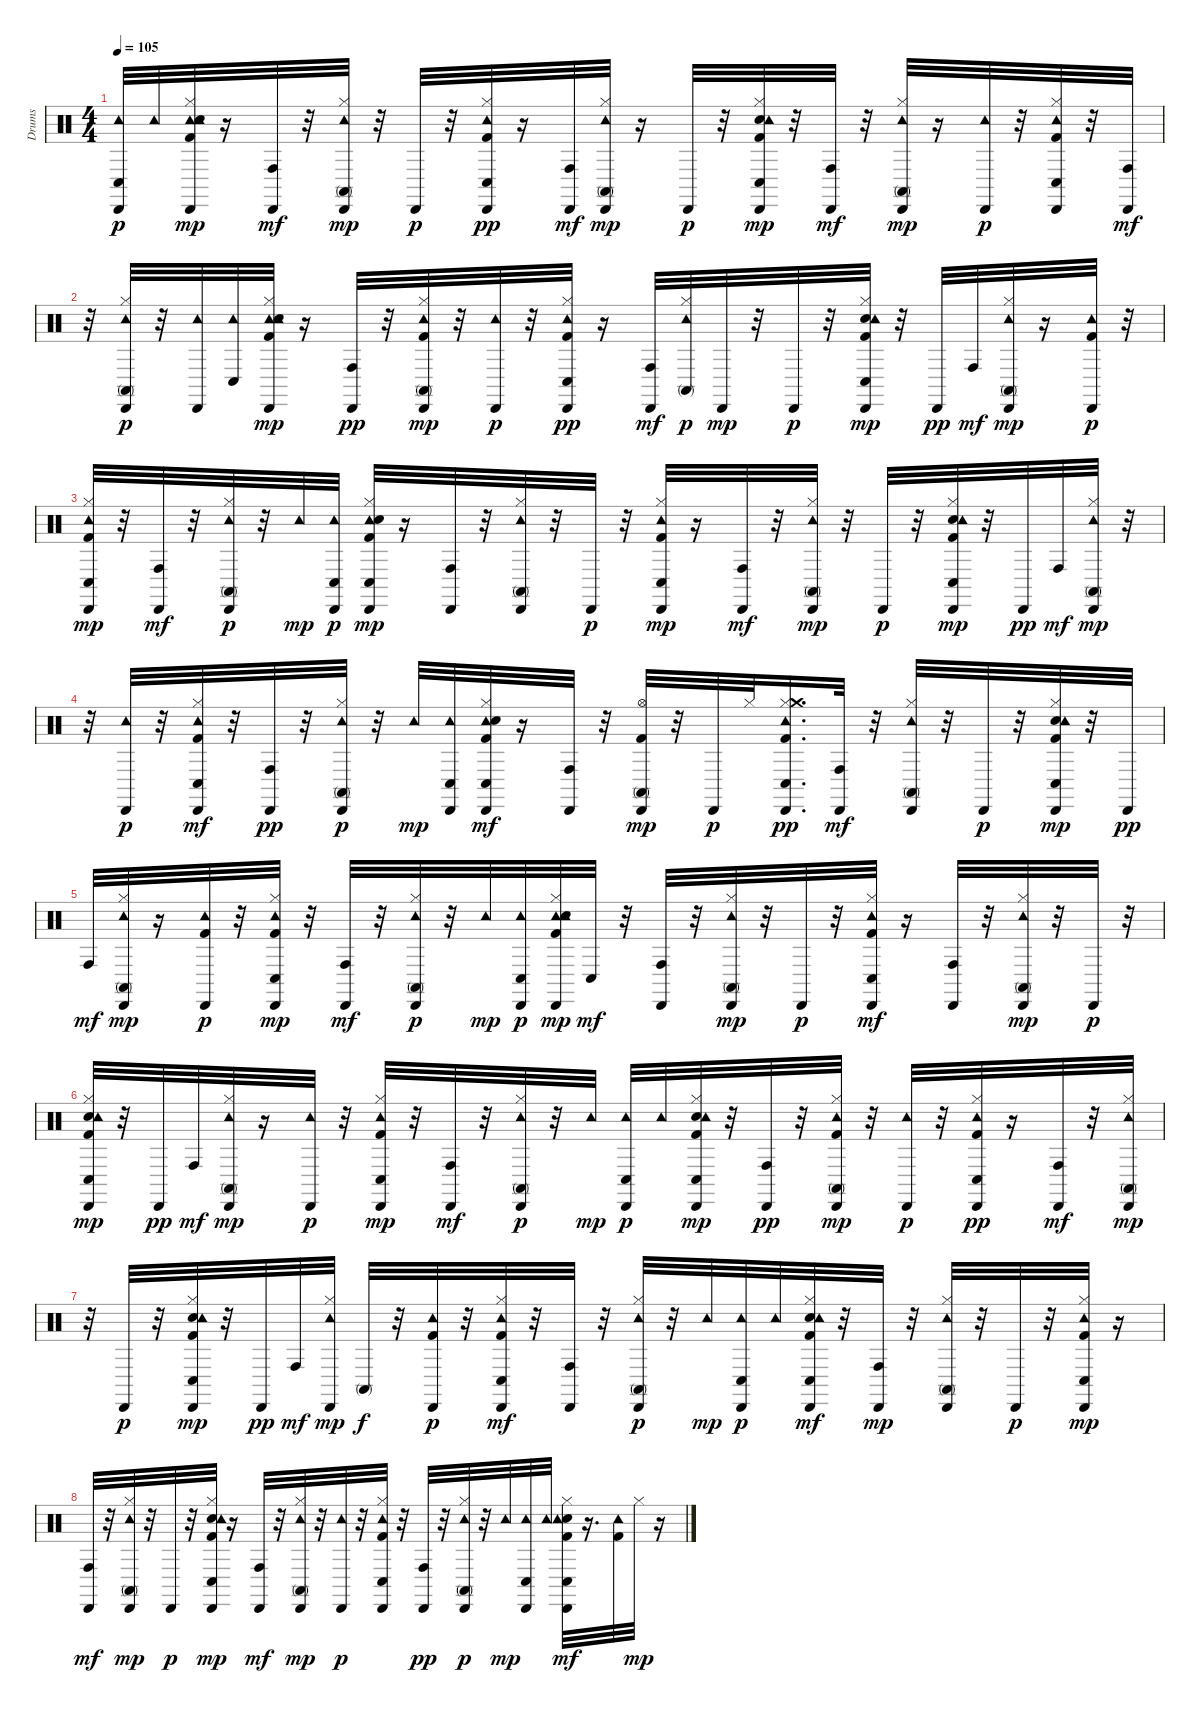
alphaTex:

\track ("Drums" "Drums") {instrument percussion}
\staff {score}
\articulation defaults
\ts (4 4)
\tempo 105
\clef neutral
\ks c
("Tambourine (hit)" "Cabasa (hit)" "Conga low (hit)").32{dy p} "Tambourine (hit)".32 ("Tambourine (hit)" "Cabasa (hit)" "Kick (hit) 2" "Snare (hit) 2" "Hi-Hat (closed)" "Tambourine (hit)").32{dy mp} r.16 ("Cabasa (hit)" "Conga high (hit)").32{dy mf} r.32 ("Hi-Hat (closed)" "Conga high (mute)" "Tambourine (hit)" "Cabasa (hit)").32{dy mp} r.32 "Cabasa (hit)".32{dy p} r.32 ("Conga low (hit)" "Tambourine (hit)" "Kick (hit) 2" "Hi-Hat (closed)" "Cabasa (hit)").32{dy pp} r.16 ("Cabasa (hit)" "Conga high (hit)").32{dy mf} ("Hi-Hat (closed)" "Tambourine (hit)" "Conga high (mute)" "Cabasa (hit)").32{dy mp} r.16 "Cabasa (hit)".32{dy p} r.32 ("Kick (hit) 2" "Snare (hit) 2" "Hi-Hat (closed)" "Conga low (hit)" "Cabasa (hit)" "Tambourine (hit)").32{dy mp} r.32 ("Cabasa (hit)" "Conga high (hit)").32{dy mf} r.32 ("Conga high (mute)" "Hi-Hat (closed)" "Tambourine (hit)" "Cabasa (hit)").32{dy mp} r.16 ("Tambourine (hit)" "Cabasa (hit)").32{dy p} r.32 ("Conga low (hit)" "Kick (hit) 2" "Hi-Hat (closed)" "Tambourine (hit)" "Cabasa (hit)").32 r.32 ("Cabasa (hit)" "Conga high (hit)").32{dy mf} |
r.32 ("Hi-Hat (closed)" "Cabasa (hit)" "Conga high (mute)" "Tambourine (hit)").32{dy p} r.32 ("Tambourine (hit)" "Cabasa (hit)").32 ("Conga low (hit)" "Tambourine (hit)").32 ("Tambourine (hit)" "Cabasa (hit)" "Kick (hit) 2" "Snare (hit) 2" "Hi-Hat (closed)" "Tambourine (hit)").32{dy mp} r.16 ("Conga high (hit)" "Cabasa (hit)").32{dy pp} r.32 ("Conga high (mute)" "Kick (hit) 2" "Hi-Hat (closed)" "Tambourine (hit)" "Cabasa (hit)").32{dy mp} r.32 ("Tambourine (hit)" "Cabasa (hit)").32{dy p} r.32 ("Kick (hit) 2" "Hi-Hat (closed)" "Conga low (hit)" "Tambourine (hit)" "Cabasa (hit)").32{dy pp} r.16 ("Cabasa (hit)" "Conga high (hit)").32{dy mf} ("Hi-Hat (closed)" "Tambourine (hit)" "Conga high (mute)").32{dy p} "Cabasa (hit)".32{dy mp} r.32 "Cabasa (hit)".32{dy p} r.32 ("Kick (hit) 2" "Snare (hit) 2" "Hi-Hat (closed)" "Cabasa (hit)" "Tambourine (hit)" "Conga low (hit)").32{dy mp} r.32 "Cabasa (hit)".32{dy pp} "Conga high (hit)".32{dy mf} ("Tambourine (hit)" "Hi-Hat (closed)" "Cabasa (hit)" "Conga high (mute)").32{dy mp} r.16 ("Tambourine (hit)" "Kick (hit) 2" "Cabasa (hit)").32{dy p} r.32 |
("Conga low (hit)" "Kick (hit) 2" "Hi-Hat (closed)" "Cabasa (hit)" "Tambourine (hit)").32{dy mp} r.32 ("Cabasa (hit)" "Conga high (hit)").32{dy mf} r.32 ("Hi-Hat (closed)" "Cabasa (hit)" "Conga high (mute)" "Tambourine (hit)").32{dy p} r.32 "Tambourine (hit)".32{dy mp} ("Cabasa (hit)" "Conga low (hit)" "Tambourine (hit)").32{dy p} ("Tambourine (hit)" "Conga low (hit)" "Cabasa (hit)" "Kick (hit) 2" "Snare (hit) 2" "Hi-Hat (closed)").32{dy mp} r.16 ("Cabasa (hit)" "Conga high (hit)").32 r.32 ("Hi-Hat (closed)" "Tambourine (hit)" "Conga high (mute)" "Cabasa (hit)").32 r.32 "Cabasa (hit)".32{dy p} r.32 ("Kick (hit) 2" "Hi-Hat (closed)" "Conga low (hit)" "Cabasa (hit)" "Tambourine (hit)").32{dy mp} r.16 ("Cabasa (hit)" "Conga high (hit)").32{dy mf} r.32 ("Conga high (mute)" "Hi-Hat (closed)" "Tambourine (hit)" "Cabasa (hit)").32{dy mp} r.32 "Cabasa (hit)".32{dy p} r.32 ("Kick (hit) 2" "Snare (hit) 2" "Hi-Hat (closed)" "Cabasa (hit)" "Tambourine (hit)" "Conga low (hit)").32{dy mp} r.32 "Cabasa (hit)".32{dy pp} "Conga high (hit)".32{dy mf} ("Hi-Hat (closed)" "Tambourine (hit)" "Cabasa (hit)" "Conga high (mute)").32{dy mp} r.32 |
r.32 ("Tambourine (hit)" "Cabasa (hit)").32{dy p} r.32 ("Kick (hit) 2" "Hi-Hat (closed)" "Tambourine (hit)" "Cabasa (hit)" "Conga low (hit)").32{dy mf} r.32 ("Conga high (hit)" "Cabasa (hit)").32{dy pp} r.32 ("Conga high (mute)" "Hi-Hat (closed)" "Cabasa (hit)" "Tambourine (hit)").32{dy p} r.32 "Tambourine (hit)".32{dy mp} ("Cabasa (hit)" "Conga low (hit)" "Tambourine (hit)").32 ("Tambourine (hit)" "Cabasa (hit)" "Kick (hit) 2" "Snare (hit) 2" "Hi-Hat (closed)" "Conga low (hit)").32{dy mf} r.16 ("Cabasa (hit)" "Conga high (hit)").32 r.32 ("Kick (hit) 2" "Hi-Hat (open)" "Conga high (mute)" "Cabasa (hit)").32{dy mp} r.32 "Cabasa (hit)".32{dy p} "Hi-Hat (closed)".32 ("Kick (hit) 2" "Hi-Hat (closed)" "Crash medium (hit)" "Conga low (hit)" "Tambourine (hit)" "Cabasa (hit)").16{d dy pp} ("Cabasa (hit)" "Conga high (hit)").32{dy mf} r.32 ("Hi-Hat (closed)" "Tambourine (hit)" "Cabasa (hit)" "Conga high (mute)").32 r.32 "Cabasa (hit)".32{dy p} r.32 ("Conga low (hit)" "Kick (hit) 2" "Snare (hit) 2" "Hi-Hat (closed)" "Cabasa (hit)" "Tambourine (hit)").32{dy mp} r.32 "Cabasa (hit)".32{dy pp} |
"Conga high (hit)".32{dy mf} ("Hi-Hat (closed)" "Tambourine (hit)" "Conga high (mute)" "Cabasa (hit)").32{dy mp} r.16 ("Tambourine (hit)" "Kick (hit) 2" "Cabasa (hit)").32{dy p} r.32 ("Kick (hit) 2" "Hi-Hat (closed)" "Cabasa (hit)" "Conga low (hit)" "Tambourine (hit)").32{dy mp} r.32 ("Cabasa (hit)" "Conga high (hit)").32{dy mf} r.32 ("Hi-Hat (closed)" "Cabasa (hit)" "Tambourine (hit)" "Conga high (mute)").32{dy p} r.32 "Tambourine (hit)".32{dy mp} ("Conga low (hit)" "Cabasa (hit)" "Tambourine (hit)").32{dy p} ("Tambourine (hit)" "Cabasa (hit)" "Kick (hit) 2" "Snare (hit) 2" "Hi-Hat (closed)" "Tambourine (hit)").32{dy mp} "Conga low (hit)".32{dy mf} r.32 ("Cabasa (hit)" "Conga high (hit)").32 r.32 ("Hi-Hat (closed)" "Conga high (mute)" "Tambourine (hit)" "Cabasa (hit)").32{dy mp} r.32 "Cabasa (hit)".32{dy p} r.32 ("Tambourine (hit)" "Kick (hit) 2" "Hi-Hat (closed)" "Cabasa (hit)" "Conga low (hit)").32{dy mf} r.16 ("Cabasa (hit)" "Conga high (hit)").32 r.32 ("Hi-Hat (closed)" "Tambourine (hit)" "Conga high (mute)" "Cabasa (hit)").32{dy mp} r.32 "Cabasa (hit)".32{dy p} r.32 |
("Kick (hit) 2" "Snare (hit) 2" "Hi-Hat (closed)" "Conga low (hit)" "Cabasa (hit)" "Tambourine (hit)").32{dy mp} r.32 "Cabasa (hit)".32{dy pp} "Conga high (hit)".32{dy mf} ("Conga high (mute)" "Hi-Hat (closed)" "Tambourine (hit)" "Cabasa (hit)").32{dy mp} r.16 ("Tambourine (hit)" "Cabasa (hit)").32{dy p} r.32 ("Kick (hit) 2" "Hi-Hat (closed)" "Tambourine (hit)" "Cabasa (hit)" "Conga low (hit)").32{dy mp} r.32 ("Cabasa (hit)" "Conga high (hit)").32{dy mf} r.32 ("Hi-Hat (closed)" "Cabasa (hit)" "Conga high (mute)" "Tambourine (hit)").32{dy p} r.32 "Tambourine (hit)".32{dy mp} ("Conga low (hit)" "Cabasa (hit)" "Tambourine (hit)").32{dy p} "Tambourine (hit)".32 ("Cabasa (hit)" "Kick (hit) 2" "Snare (hit) 2" "Hi-Hat (closed)" "Tambourine (hit)" "Conga low (hit)").32{dy mp} r.32 ("Conga high (hit)" "Cabasa (hit)").32{dy pp} r.32 ("Conga high (mute)" "Kick (hit) 2" "Hi-Hat (closed)" "Tambourine (hit)" "Cabasa (hit)").32{dy mp} r.32 ("Tambourine (hit)" "Cabasa (hit)").32{dy p} r.32 ("Conga low (hit)" "Kick (hit) 2" "Hi-Hat (closed)" "Tambourine (hit)" "Cabasa (hit)").32{dy pp} r.16 ("Cabasa (hit)" "Conga high (hit)").32{dy mf} r.32 ("Hi-Hat (closed)" "Tambourine (hit)" "Conga high (mute)" "Cabasa (hit)").32{dy mp} |
r.32 "Cabasa (hit)".32{dy p} r.32 ("Kick (hit) 2" "Snare (hit) 2" "Hi-Hat (closed)" "Conga low (hit)" "Cabasa (hit)" "Tambourine (hit)").32{dy mp} r.32 "Cabasa (hit)".32{dy pp} "Conga high (hit)".32{dy mf} ("Tambourine (hit)" "Hi-Hat (closed)" "Cabasa (hit)").32{dy mp} "Conga high (mute)".32{dy f} r.32 ("Tambourine (hit)" "Kick (hit) 2" "Cabasa (hit)").32{dy p} r.32 ("Kick (hit) 2" "Hi-Hat (closed)" "Cabasa (hit)" "Tambourine (hit)" "Conga low (hit)").32{dy mf} r.32 ("Cabasa (hit)" "Conga high (hit)").32 r.32 ("Hi-Hat (closed)" "Cabasa (hit)" "Conga high (mute)" "Tambourine (hit)").32{dy p} r.32 "Tambourine (hit)".32{dy mp} ("Cabasa (hit)" "Conga low (hit)" "Tambourine (hit)").32{dy p} "Tambourine (hit)".32 ("Cabasa (hit)" "Kick (hit) 2" "Snare (hit) 2" "Hi-Hat (closed)" "Tambourine (hit)" "Conga low (hit)").32{dy mf} r.32 ("Cabasa (hit)" "Conga high (hit)").32{dy mp} r.32 ("Hi-Hat (closed)" "Tambourine (hit)" "Conga high (mute)" "Cabasa (hit)").32 r.32 "Cabasa (hit)".32{dy p} r.32 ("Kick (hit) 2" "Hi-Hat (closed)" "Conga low (hit)" "Cabasa (hit)" "Tambourine (hit)").32{dy mp} r.16 |
("Cabasa (hit)" "Conga high (hit)").32{dy mf} r.32 ("Conga high (mute)" "Hi-Hat (closed)" "Tambourine (hit)" "Cabasa (hit)").32{dy mp} r.32 "Cabasa (hit)".32{dy p} r.32 ("Kick (hit) 2" "Snare (hit) 2" "Hi-Hat (closed)" "Cabasa (hit)" "Conga low (hit)" "Tambourine (hit)").32{dy mp} r.16 ("Cabasa (hit)" "Conga high (hit)").32{dy mf} r.32 ("Hi-Hat (closed)" "Tambourine (hit)" "Cabasa (hit)" "Conga high (mute)").32{dy mp} r.32 ("Tambourine (hit)" "Cabasa (hit)").32{dy p} r.32 ("Conga low (hit)" "Kick (hit) 2" "Hi-Hat (closed)" "Tambourine (hit)" "Cabasa (hit)").32 r.32 ("Conga high (hit)" "Cabasa (hit)").32{dy pp} r.32 ("Conga high (mute)" "Hi-Hat (closed)" "Cabasa (hit)" "Tambourine (hit)").32{dy p} r.32 "Tambourine (hit)".32{dy mp} ("Cabasa (hit)" "Conga low (hit)" "Tambourine (hit)").32 "Tambourine (hit)".32 ("Conga low (hit)" "Cabasa (hit)" "Kick (hit) 2" "Snare (hit) 2" "Hi-Hat (closed)" "Tambourine (hit)").32{dy mf} r.16{d} ("Kick (hit) 2" "Tambourine (hit)").32 "Hi-Hat (closed)".32{dy mp} r.16
